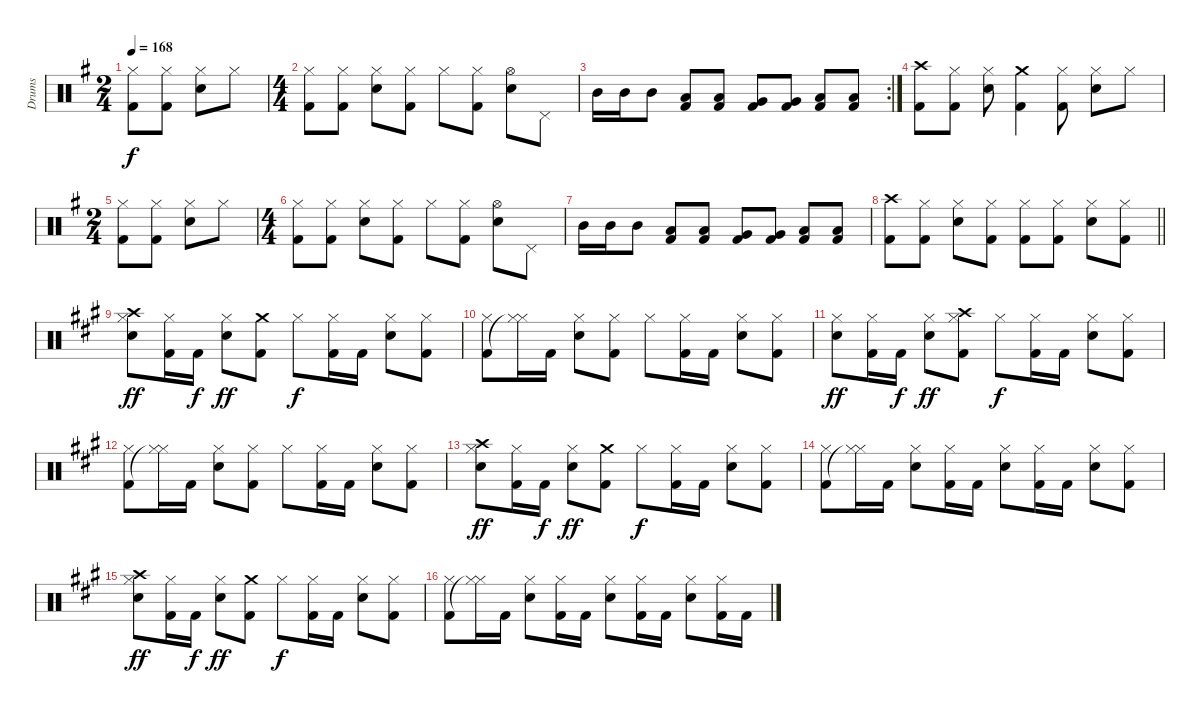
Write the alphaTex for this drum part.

\track ("Drums" "Drums") {instrument percussion}
\staff {score}
\articulation defaults
\ts (2 4)
\tempo 168
\clef neutral
\ks g
("Hi-Hat (closed)" "Kick (hit) 2").8{dy f} ("Hi-Hat (closed)" "Kick (hit) 2").8 ("Hi-Hat (closed)" "Snare (hit) 2").8 "Hi-Hat (closed)".8 |
\ts (4 4)
("Hi-Hat (closed)" "Kick (hit) 2").8 ("Hi-Hat (closed)" "Kick (hit) 2").8 ("Hi-Hat (closed)" "Snare (hit) 2").8 ("Hi-Hat (closed)" "Kick (hit) 2").8 "Hi-Hat (closed)".8 ("Hi-Hat (closed)" "Kick (hit) 2").8 ("Hi-Hat (open)" "Snare (hit) 2").8 "Pedal Hi-Hat (hit)".8 |
\rc 2 "Mid Tom (hit)".16 "Mid Tom (hit)".16 "Mid Tom (hit)".8
("Low Tom (hit)" "Kick (hit) 2").8 ("Low Tom (hit)" "Kick (hit) 2").8 ("Very Low Tom (hit)" "Kick (hit) 2").8 ("Very Low Tom (hit)" "Kick (hit) 2").8 ("Low Floor Tom (hit)" "Kick (hit) 2").8 ("Low Floor Tom (hit)" "Kick (hit) 2").8 |
("Crash high (hit)" "Kick (hit) 2").8 ("Hi-Hat (closed)" "Kick (hit) 2").8 ("Hi-Hat (closed)" "Snare (hit) 2").8 ("Crash medium (hit)" "Kick (hit) 2").4 ("Hi-Hat (closed)" "Kick (hit) 2").8 ("Hi-Hat (closed)" "Snare (hit) 2").8 "Hi-Hat (closed)".8 |
\ts (2 4)
("Hi-Hat (closed)" "Kick (hit) 2").8 ("Hi-Hat (closed)" "Kick (hit) 2").8 ("Hi-Hat (closed)" "Snare (hit) 2").8 "Hi-Hat (closed)".8 |
\ts (4 4)
("Hi-Hat (closed)" "Kick (hit) 2").8 ("Hi-Hat (closed)" "Kick (hit) 2").8 ("Hi-Hat (closed)" "Snare (hit) 2").8 ("Hi-Hat (closed)" "Kick (hit) 2").8 "Hi-Hat (closed)".8 ("Hi-Hat (closed)" "Kick (hit) 2").8 ("Hi-Hat (open)" "Snare (hit) 2").8 "Pedal Hi-Hat (hit)".8 |
"Mid Tom (hit)".16 "Mid Tom (hit)".16 "Mid Tom (hit)".8 ("Low Tom (hit)" "Kick (hit) 2").8 ("Low Tom (hit)" "Kick (hit) 2").8 ("Very Low Tom (hit)" "Kick (hit) 2").8 ("Very Low Tom (hit)" "Kick (hit) 2").8 ("Low Floor Tom (hit)" "Kick (hit) 2").8 ("Low Floor Tom (hit)" "Kick (hit) 2").8 |
\barLineRight lightlight
("Crash high (hit)" "Kick (hit) 2").8 ("Hi-Hat (closed)" "Kick (hit) 2").8 ("Hi-Hat (closed)" "Snare (hit) 2").8 ("Hi-Hat (closed)" "Kick (hit) 2").8 ("Hi-Hat (closed)" "Kick (hit) 2").8 ("Hi-Hat (closed)" "Kick (hit) 2").8 ("Hi-Hat (closed)" "Snare (hit) 2").8 ("Hi-Hat (closed)" "Kick (hit) 2").8 |
\ks a
("Crash high (hit)" "Hi-Hat (closed)" "Snare (hit) 2").8{dy ff} ("Hi-Hat (closed)" "Kick (hit) 2").16 "Kick (hit) 2".16{dy f} ("Hi-Hat (closed)" "Snare (hit) 2").8{dy ff} ("Crash medium (hit)" "Kick (hit) 2").8 "Hi-Hat (closed)".8{dy f} ("Hi-Hat (closed)" "Kick (hit) 2").16 "Kick (hit) 2".16 ("Hi-Hat (closed)" "Snare (hit) 2").8 ("Hi-Hat (closed)" "Kick (hit) 2").8 |
("Hi-Hat (closed)" "Kick (hit) 2").8 ("Hi-Hat (closed)" "Hi-Hat (closed)"{t}).16 "Kick (hit) 2".16 ("Hi-Hat (closed)" "Snare (hit) 2").8 ("Hi-Hat (closed)" "Kick (hit) 2").8 "Hi-Hat (closed)".8 ("Hi-Hat (closed)" "Kick (hit) 2").16 "Kick (hit) 2".16 ("Hi-Hat (closed)" "Snare (hit) 2").8 ("Hi-Hat (closed)" "Kick (hit) 2").8 |
("Hi-Hat (closed)" "Snare (hit) 2").8{dy ff} ("Hi-Hat (closed)" "Kick (hit) 2").16 "Kick (hit) 2".16{dy f} ("Hi-Hat (closed)" "Snare (hit) 2").8{dy ff} ("Crash high (hit)" "Hi-Hat (closed)" "Kick (hit) 2").8 "Hi-Hat (closed)".8{dy f} ("Hi-Hat (closed)" "Kick (hit) 2").16 "Kick (hit) 2".16 ("Hi-Hat (closed)" "Snare (hit) 2").8 ("Hi-Hat (closed)" "Kick (hit) 2").8 |
("Hi-Hat (closed)" "Kick (hit) 2").8 ("Hi-Hat (closed)" "Hi-Hat (closed)"{t}).16 "Kick (hit) 2".16 ("Hi-Hat (closed)" "Snare (hit) 2").8 ("Hi-Hat (closed)" "Kick (hit) 2").8 "Hi-Hat (closed)".8 ("Hi-Hat (closed)" "Kick (hit) 2").16 "Kick (hit) 2".16 ("Hi-Hat (closed)" "Snare (hit) 2").8 ("Hi-Hat (closed)" "Kick (hit) 2").8 |
("Crash high (hit)" "Hi-Hat (closed)" "Snare (hit) 2").8{dy ff} ("Hi-Hat (closed)" "Kick (hit) 2").16 "Kick (hit) 2".16{dy f} ("Hi-Hat (closed)" "Snare (hit) 2").8{dy ff} ("Crash medium (hit)" "Kick (hit) 2").8 "Hi-Hat (closed)".8{dy f} ("Hi-Hat (closed)" "Kick (hit) 2").16 "Kick (hit) 2".16 ("Hi-Hat (closed)" "Snare (hit) 2").8 ("Hi-Hat (closed)" "Kick (hit) 2").8 |
("Hi-Hat (closed)" "Kick (hit) 2").8 ("Hi-Hat (closed)" "Hi-Hat (closed)"{t}).16 "Kick (hit) 2".16 ("Hi-Hat (closed)" "Snare (hit) 2").8 ("Hi-Hat (closed)" "Kick (hit) 2").16 "Kick (hit) 2".16 ("Hi-Hat (closed)" "Snare (hit) 2").8 ("Hi-Hat (closed)" "Kick (hit) 2").16 "Kick (hit) 2".16 ("Hi-Hat (closed)" "Snare (hit) 2").8 ("Hi-Hat (closed)" "Kick (hit) 2").8 |
("Crash high (hit)" "Hi-Hat (closed)" "Snare (hit) 2").8{dy ff} ("Hi-Hat (closed)" "Kick (hit) 2").16 "Kick (hit) 2".16{dy f} ("Hi-Hat (closed)" "Snare (hit) 2").8{dy ff} ("Crash medium (hit)" "Kick (hit) 2").8 "Hi-Hat (closed)".8{dy f} ("Hi-Hat (closed)" "Kick (hit) 2").16 "Kick (hit) 2".16 ("Hi-Hat (closed)" "Snare (hit) 2").8 ("Hi-Hat (closed)" "Kick (hit) 2").8 |
("Hi-Hat (closed)" "Kick (hit) 2").8 ("Hi-Hat (closed)" "Hi-Hat (closed)"{t}).16 "Kick (hit) 2".16 ("Hi-Hat (closed)" "Snare (hit) 2").8 ("Hi-Hat (closed)" "Kick (hit) 2").16 "Kick (hit) 2".16 ("Hi-Hat (closed)" "Snare (hit) 2").8 ("Hi-Hat (closed)" "Kick (hit) 2").16 "Kick (hit) 2".16 ("Hi-Hat (closed)" "Snare (hit) 2").8 ("Hi-Hat (closed)" "Kick (hit) 2").16 "Kick (hit) 2".16
